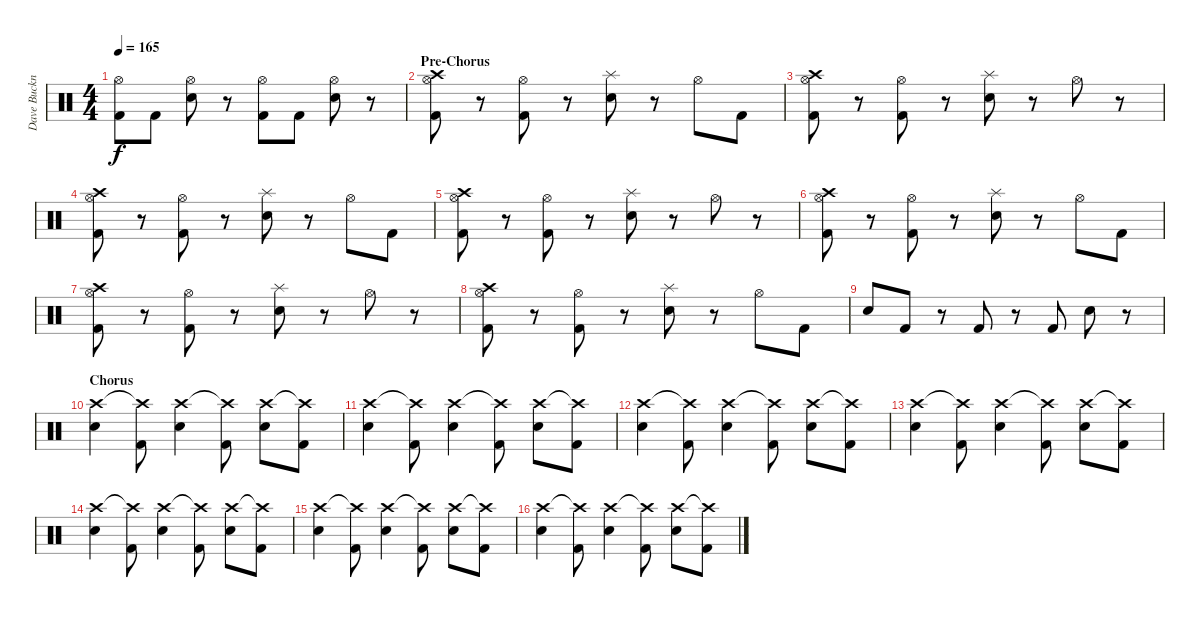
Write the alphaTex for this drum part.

\track ("Dave Buckner " "Dave Buckn") {instrument percussion}
\staff {score}
\articulation defaults
\ts (4 4)
\tempo 165
\clef neutral
\ks c
("Hi-Hat (open)" "Kick (hit) 2").8{dy f} "Kick (hit) 2".8 ("Hi-Hat (open)" "Snare (hit) 2").8 r.8 ("Hi-Hat (open)" "Kick (hit) 2").8 "Kick (hit) 2".8 ("Hi-Hat (open)" "Snare (hit) 2").8 r.8 |
\section ("" "Pre-Chorus")
("Crash high (hit)" "Hi-Hat (open)" "Kick (hit) 2").8 r.8 ("Hi-Hat (open)" "Kick (hit) 2").8 r.8 ("Splash (hit)" "Snare (hit) 2").8 r.8 "Hi-Hat (open)".8 "Kick (hit) 2".8 |
("Crash high (hit)" "Hi-Hat (open)" "Kick (hit) 2").8 r.8 ("Hi-Hat (open)" "Kick (hit) 2").8 r.8 ("Splash (hit)" "Snare (hit) 2").8 r.8 "Hi-Hat (open)".8 r.8 |
("Crash high (hit)" "Hi-Hat (open)" "Kick (hit) 2").8 r.8 ("Hi-Hat (open)" "Kick (hit) 2").8 r.8 ("Splash (hit)" "Snare (hit) 2").8 r.8 "Hi-Hat (open)".8 "Kick (hit) 2".8 |
("Crash high (hit)" "Hi-Hat (open)" "Kick (hit) 2").8 r.8 ("Hi-Hat (open)" "Kick (hit) 2").8 r.8 ("Splash (hit)" "Snare (hit) 2").8 r.8 "Hi-Hat (open)".8 r.8 |
("Crash high (hit)" "Hi-Hat (open)" "Kick (hit) 2").8 r.8 ("Hi-Hat (open)" "Kick (hit) 2").8 r.8 ("Splash (hit)" "Snare (hit) 2").8 r.8 "Hi-Hat (open)".8 "Kick (hit) 2".8 |
("Crash high (hit)" "Hi-Hat (open)" "Kick (hit) 2").8 r.8 ("Hi-Hat (open)" "Kick (hit) 2").8 r.8 ("Splash (hit)" "Snare (hit) 2").8 r.8 "Hi-Hat (open)".8 r.8 |
("Crash high (hit)" "Hi-Hat (open)" "Kick (hit) 2").8 r.8 ("Hi-Hat (open)" "Kick (hit) 2").8 r.8 ("Splash (hit)" "Snare (hit) 2").8 r.8 "Hi-Hat (open)".8 "Kick (hit) 2".8 |
"Snare (hit) 2".8 "Kick (hit) 2".8 r.8 "Kick (hit) 2".8 r.8 "Kick (hit) 2".8 "Snare (hit) 2".8 r.8 |
\section ("" "Chorus")
("Crash high (hit)" "Snare (hit) 2").4 ("Crash high (hit)"{t} "Kick (hit) 2").8 ("Crash high (hit)" "Snare (hit) 2").4 ("Crash high (hit)"{t} "Kick (hit) 2").8 ("Crash high (hit)" "Snare (hit) 2").8 ("Crash high (hit)"{t} "Kick (hit) 2").8 |
("Crash high (hit)" "Snare (hit) 2").4 ("Crash high (hit)"{t} "Kick (hit) 2").8 ("Crash high (hit)" "Snare (hit) 2").4 ("Crash high (hit)"{t} "Kick (hit) 2").8 ("Crash high (hit)" "Snare (hit) 2").8 ("Crash high (hit)"{t} "Kick (hit) 2").8 |
("Crash high (hit)" "Snare (hit) 2").4 ("Crash high (hit)"{t} "Kick (hit) 2").8 ("Crash high (hit)" "Snare (hit) 2").4 ("Crash high (hit)"{t} "Kick (hit) 2").8 ("Crash high (hit)" "Snare (hit) 2").8 ("Crash high (hit)"{t} "Kick (hit) 2").8 |
("Crash high (hit)" "Snare (hit) 2").4 ("Crash high (hit)"{t} "Kick (hit) 2").8 ("Crash high (hit)" "Snare (hit) 2").4 ("Crash high (hit)"{t} "Kick (hit) 2").8 ("Crash high (hit)" "Snare (hit) 2").8 ("Crash high (hit)"{t} "Kick (hit) 2").8 |
("Crash high (hit)" "Snare (hit) 2").4 ("Crash high (hit)"{t} "Kick (hit) 2").8 ("Crash high (hit)" "Snare (hit) 2").4 ("Crash high (hit)"{t} "Kick (hit) 2").8 ("Crash high (hit)" "Snare (hit) 2").8 ("Crash high (hit)"{t} "Kick (hit) 2").8 |
("Crash high (hit)" "Snare (hit) 2").4 ("Crash high (hit)"{t} "Kick (hit) 2").8 ("Crash high (hit)" "Snare (hit) 2").4 ("Crash high (hit)"{t} "Kick (hit) 2").8 ("Crash high (hit)" "Snare (hit) 2").8 ("Crash high (hit)"{t} "Kick (hit) 2").8 |
("Crash high (hit)" "Snare (hit) 2").4 ("Crash high (hit)"{t} "Kick (hit) 2").8 ("Crash high (hit)" "Snare (hit) 2").4 ("Crash high (hit)"{t} "Kick (hit) 2").8 ("Crash high (hit)" "Snare (hit) 2").8 ("Crash high (hit)"{t} "Kick (hit) 2").8
